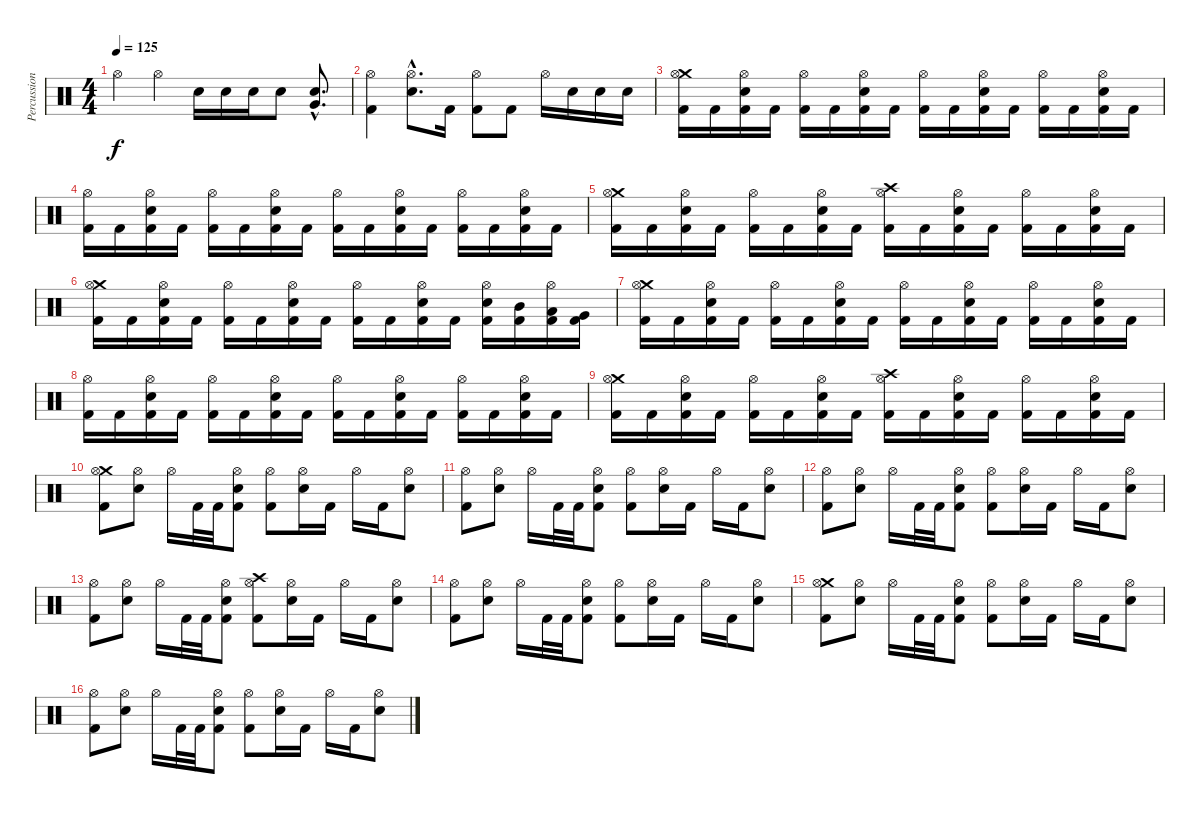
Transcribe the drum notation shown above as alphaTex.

\track ("Percussion" "Percussion") {instrument percussion}
\staff {score}
\articulation defaults
\ts (4 4)
\tempo 125
\clef neutral
\ks c "Hi-Hat (open)".4{dy f} "Hi-Hat (open)".4 "Electric Snare (hit)".16 "Electric Snare (hit)".16 "Electric Snare (hit)".16 "Electric Snare (hit)".8
("Very Low Tom (hit)"{hac} "Electric Snare (hit)"{hac}).8{d} |
("Hi-Hat (open)" "Kick (hit) 2").4 ("Hi-Hat (open)"{hac} "Electric Snare (hit)"{hac}).8{d} "Kick (hit) 2".16 ("Hi-Hat (open)" "Kick (hit) 2").8 "Kick (hit) 2".8 "Hi-Hat (open)".16 "Electric Snare (hit)".16 "Electric Snare (hit)".16 "Electric Snare (hit)".16 |
("Crash medium (hit)" "Hi-Hat (open)" "Kick (hit) 2").16 "Kick (hit) 2".16 ("Hi-Hat (open)" "Electric Snare (hit)" "Kick (hit) 2").16 "Kick (hit) 2".16 ("Hi-Hat (open)" "Kick (hit) 2").16 "Kick (hit) 2".16 ("Hi-Hat (open)" "Electric Snare (hit)" "Kick (hit) 2").16 "Kick (hit) 2".16 ("Hi-Hat (open)" "Kick (hit) 2").16 "Kick (hit) 2".16 ("Hi-Hat (open)" "Electric Snare (hit)" "Kick (hit) 2").16 "Kick (hit) 2".16 ("Hi-Hat (open)" "Kick (hit) 2").16 "Kick (hit) 2".16 ("Hi-Hat (open)" "Electric Snare (hit)" "Kick (hit) 2").16 "Kick (hit) 2".16 |
("Hi-Hat (open)" "Kick (hit) 2").16 "Kick (hit) 2".16 ("Hi-Hat (open)" "Electric Snare (hit)" "Kick (hit) 2").16 "Kick (hit) 2".16 ("Hi-Hat (open)" "Kick (hit) 2").16 "Kick (hit) 2".16 ("Hi-Hat (open)" "Electric Snare (hit)" "Kick (hit) 2").16 "Kick (hit) 2".16 ("Hi-Hat (open)" "Kick (hit) 2").16 "Kick (hit) 2".16 ("Hi-Hat (open)" "Electric Snare (hit)" "Kick (hit) 2").16 "Kick (hit) 2".16 ("Hi-Hat (open)" "Kick (hit) 2").16 "Kick (hit) 2".16 ("Hi-Hat (open)" "Electric Snare (hit)" "Kick (hit) 2").16 "Kick (hit) 2".16 |
("Crash medium (hit)" "Hi-Hat (open)" "Kick (hit) 2").16 "Kick (hit) 2".16 ("Hi-Hat (open)" "Electric Snare (hit)" "Kick (hit) 2").16 "Kick (hit) 2".16 ("Hi-Hat (open)" "Kick (hit) 2").16 "Kick (hit) 2".16 ("Hi-Hat (open)" "Electric Snare (hit)" "Kick (hit) 2").16 "Kick (hit) 2".16 ("Crash high (hit)" "Hi-Hat (open)" "Kick (hit) 2").16 "Kick (hit) 2".16 ("Hi-Hat (open)" "Electric Snare (hit)" "Kick (hit) 2").16 "Kick (hit) 2".16 ("Hi-Hat (open)" "Kick (hit) 2").16 "Kick (hit) 2".16 ("Hi-Hat (open)" "Electric Snare (hit)" "Kick (hit) 2").16 "Kick (hit) 2".16 |
("Crash medium (hit)" "Hi-Hat (open)" "Kick (hit) 2").16 "Kick (hit) 2".16 ("Hi-Hat (open)" "Electric Snare (hit)" "Kick (hit) 2").16 "Kick (hit) 2".16 ("Hi-Hat (open)" "Kick (hit) 2").16 "Kick (hit) 2".16 ("Hi-Hat (open)" "Electric Snare (hit)" "Kick (hit) 2").16 "Kick (hit) 2".16 ("Hi-Hat (open)" "Kick (hit) 2").16 "Kick (hit) 2".16 ("Hi-Hat (open)" "Electric Snare (hit)" "Kick (hit) 2").16 "Kick (hit) 2".16 ("Hi-Hat (open)" "Electric Snare (hit)" "Kick (hit) 2").16 ("Mid Tom (hit)" "Kick (hit) 2").16 ("Hi-Hat (open)" "Low Tom (hit)" "Kick (hit) 2").16 ("Very Low Tom (hit)" "Kick (hit) 2").16 |
("Crash medium (hit)" "Hi-Hat (open)" "Kick (hit) 2").16 "Kick (hit) 2".16 ("Hi-Hat (open)" "Electric Snare (hit)" "Kick (hit) 2").16 "Kick (hit) 2".16 ("Hi-Hat (open)" "Kick (hit) 2").16 "Kick (hit) 2".16 ("Hi-Hat (open)" "Electric Snare (hit)" "Kick (hit) 2").16 "Kick (hit) 2".16 ("Hi-Hat (open)" "Kick (hit) 2").16 "Kick (hit) 2".16 ("Hi-Hat (open)" "Electric Snare (hit)" "Kick (hit) 2").16 "Kick (hit) 2".16 ("Hi-Hat (open)" "Kick (hit) 2").16 "Kick (hit) 2".16 ("Hi-Hat (open)" "Electric Snare (hit)" "Kick (hit) 2").16 "Kick (hit) 2".16 |
("Hi-Hat (open)" "Kick (hit) 2").16 "Kick (hit) 2".16 ("Hi-Hat (open)" "Electric Snare (hit)" "Kick (hit) 2").16 "Kick (hit) 2".16 ("Hi-Hat (open)" "Kick (hit) 2").16 "Kick (hit) 2".16 ("Hi-Hat (open)" "Electric Snare (hit)" "Kick (hit) 2").16 "Kick (hit) 2".16 ("Hi-Hat (open)" "Kick (hit) 2").16 "Kick (hit) 2".16 ("Hi-Hat (open)" "Electric Snare (hit)" "Kick (hit) 2").16 "Kick (hit) 2".16 ("Hi-Hat (open)" "Kick (hit) 2").16 "Kick (hit) 2".16 ("Hi-Hat (open)" "Electric Snare (hit)" "Kick (hit) 2").16 "Kick (hit) 2".16 |
("Crash medium (hit)" "Hi-Hat (open)" "Kick (hit) 2").16 "Kick (hit) 2".16 ("Hi-Hat (open)" "Electric Snare (hit)" "Kick (hit) 2").16 "Kick (hit) 2".16 ("Hi-Hat (open)" "Kick (hit) 2").16 "Kick (hit) 2".16 ("Hi-Hat (open)" "Electric Snare (hit)" "Kick (hit) 2").16 "Kick (hit) 2".16 ("Crash high (hit)" "Hi-Hat (open)" "Kick (hit) 2").16 "Kick (hit) 2".16 ("Hi-Hat (open)" "Electric Snare (hit)" "Kick (hit) 2").16 "Kick (hit) 2".16 ("Hi-Hat (open)" "Kick (hit) 2").16 "Kick (hit) 2".16 ("Hi-Hat (open)" "Electric Snare (hit)" "Kick (hit) 2").16 "Kick (hit) 2".16 |
("Crash medium (hit)" "Hi-Hat (open)" "Kick (hit) 2").8 ("Hi-Hat (open)" "Electric Snare (hit)").8 "Hi-Hat (open)".16 "Kick (hit) 2".32 "Kick (hit) 2".32 ("Hi-Hat (open)" "Electric Snare (hit)" "Kick (hit) 2").8 ("Hi-Hat (open)" "Kick (hit) 2").8 ("Hi-Hat (open)" "Electric Snare (hit)").16 "Kick (hit) 2".16 "Hi-Hat (open)".16 "Kick (hit) 2".16 ("Hi-Hat (open)" "Electric Snare (hit)").8 |
("Hi-Hat (open)" "Kick (hit) 2").8 ("Hi-Hat (open)" "Electric Snare (hit)").8 "Hi-Hat (open)".16 "Kick (hit) 2".32 "Kick (hit) 2".32 ("Hi-Hat (open)" "Electric Snare (hit)" "Kick (hit) 2").8 ("Hi-Hat (open)" "Kick (hit) 2").8 ("Hi-Hat (open)" "Electric Snare (hit)").16 "Kick (hit) 2".16 "Hi-Hat (open)".16 "Kick (hit) 2".16 ("Hi-Hat (open)" "Electric Snare (hit)").8 |
("Hi-Hat (open)" "Kick (hit) 2").8 ("Hi-Hat (open)" "Electric Snare (hit)").8 "Hi-Hat (open)".16 "Kick (hit) 2".32 "Kick (hit) 2".32 ("Hi-Hat (open)" "Electric Snare (hit)" "Kick (hit) 2").8 ("Hi-Hat (open)" "Kick (hit) 2").8 ("Hi-Hat (open)" "Electric Snare (hit)").16 "Kick (hit) 2".16 "Hi-Hat (open)".16 "Kick (hit) 2".16 ("Hi-Hat (open)" "Electric Snare (hit)").8 |
("Hi-Hat (open)" "Kick (hit) 2").8 ("Hi-Hat (open)" "Electric Snare (hit)").8 "Hi-Hat (open)".16 "Kick (hit) 2".32 "Kick (hit) 2".32 ("Hi-Hat (open)" "Electric Snare (hit)" "Kick (hit) 2").8 ("Crash high (hit)" "Hi-Hat (open)" "Kick (hit) 2").8 ("Hi-Hat (open)" "Electric Snare (hit)").16 "Kick (hit) 2".16 "Hi-Hat (open)".16 "Kick (hit) 2".16 ("Hi-Hat (open)" "Electric Snare (hit)").8 |
("Hi-Hat (open)" "Kick (hit) 2").8 ("Hi-Hat (open)" "Electric Snare (hit)").8 "Hi-Hat (open)".16 "Kick (hit) 2".32 "Kick (hit) 2".32 ("Hi-Hat (open)" "Electric Snare (hit)" "Kick (hit) 2").8 ("Hi-Hat (open)" "Kick (hit) 2").8 ("Hi-Hat (open)" "Electric Snare (hit)").16 "Kick (hit) 2".16 "Hi-Hat (open)".16 "Kick (hit) 2".16 ("Hi-Hat (open)" "Electric Snare (hit)").8 |
("Crash medium (hit)" "Hi-Hat (open)" "Kick (hit) 2").8 ("Hi-Hat (open)" "Electric Snare (hit)").8 "Hi-Hat (open)".16 "Kick (hit) 2".32 "Kick (hit) 2".32 ("Hi-Hat (open)" "Electric Snare (hit)" "Kick (hit) 2").8 ("Hi-Hat (open)" "Kick (hit) 2").8 ("Hi-Hat (open)" "Electric Snare (hit)").16 "Kick (hit) 2".16 "Hi-Hat (open)".16 "Kick (hit) 2".16 ("Hi-Hat (open)" "Electric Snare (hit)").8 |
("Hi-Hat (open)" "Kick (hit) 2").8 ("Hi-Hat (open)" "Electric Snare (hit)").8 "Hi-Hat (open)".16 "Kick (hit) 2".32 "Kick (hit) 2".32 ("Hi-Hat (open)" "Electric Snare (hit)" "Kick (hit) 2").8 ("Hi-Hat (open)" "Kick (hit) 2").8 ("Hi-Hat (open)" "Electric Snare (hit)").16 "Kick (hit) 2".16 "Hi-Hat (open)".16 "Kick (hit) 2".16 ("Hi-Hat (open)" "Electric Snare (hit)").8
